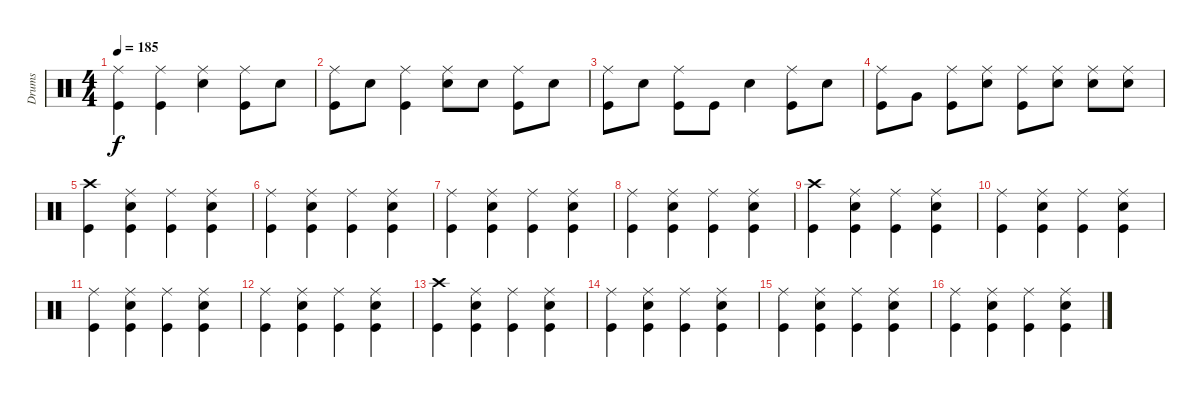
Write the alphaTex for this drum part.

\track ("Drums " "Drums ") {instrument percussion}
\staff {score}
\articulation defaults
\ts (4 4)
\tempo 185
\clef neutral
\ks c
("Ride (middle)" "Kick (hit)").4{dy f} ("Kick (hit)" "Ride (middle)").4 ("Snare (hit) 2" "Ride (middle)").4 ("Kick (hit)" "Ride (middle)").8 "Snare (hit) 2".8 |
("Ride (middle)" "Kick (hit)").8 "Snare (hit) 2".8 ("Ride (middle)" "Kick (hit)").4 ("Ride (middle)" "Snare (hit) 2").8 "Snare (hit) 2".8 ("Ride (middle)" "Kick (hit)").8 "Snare (hit) 2".8 |
("Ride (middle)" "Kick (hit)").8 "Snare (hit) 2".8 ("Kick (hit)" "Ride (middle)").8 "Kick (hit)".8 "Snare (hit) 2".4 ("Ride (middle)" "Kick (hit)").8 "Snare (hit) 2".8 |
("Ride (middle)" "Kick (hit)").8 "Very Low Tom (hit)".8 ("Ride (middle)" "Kick (hit)").8 ("Snare (hit) 2" "Ride (middle)").8 ("Ride (middle)" "Kick (hit)").8 ("Snare (hit) 2" "Ride (middle)").8 ("Snare (hit) 2" "Ride (middle)").8 ("Snare (hit) 2" "Ride (middle)").8 |
("Crash high (hit)" "Kick (hit)").4 ("Ride (middle)" "Snare (hit) 2" "Kick (hit)").4 ("Ride (middle)" "Kick (hit)").4 ("Ride (middle)" "Snare (hit) 2" "Kick (hit)").4 |
("Ride (middle)" "Kick (hit)").4 ("Ride (middle)" "Snare (hit) 2" "Kick (hit)").4 ("Ride (middle)" "Kick (hit)").4 ("Ride (middle)" "Snare (hit) 2" "Kick (hit)").4 |
("Ride (middle)" "Kick (hit)").4 ("Ride (middle)" "Snare (hit) 2" "Kick (hit)").4 ("Ride (middle)" "Kick (hit)").4 ("Ride (middle)" "Snare (hit) 2" "Kick (hit)").4 |
("Ride (middle)" "Kick (hit)").4 ("Ride (middle)" "Snare (hit) 2" "Kick (hit)").4 ("Ride (middle)" "Kick (hit)").4 ("Ride (middle)" "Snare (hit) 2" "Kick (hit)").4 |
("Crash high (hit)" "Kick (hit)").4 ("Ride (middle)" "Snare (hit) 2" "Kick (hit)").4 ("Ride (middle)" "Kick (hit)").4 ("Ride (middle)" "Snare (hit) 2" "Kick (hit)").4 |
("Ride (middle)" "Kick (hit)").4 ("Ride (middle)" "Snare (hit) 2" "Kick (hit)").4 ("Ride (middle)" "Kick (hit)").4 ("Ride (middle)" "Snare (hit) 2" "Kick (hit)").4 |
("Ride (middle)" "Kick (hit)").4 ("Ride (middle)" "Snare (hit) 2" "Kick (hit)").4 ("Ride (middle)" "Kick (hit)").4 ("Ride (middle)" "Snare (hit) 2" "Kick (hit)").4 |
("Ride (middle)" "Kick (hit)").4 ("Ride (middle)" "Snare (hit) 2" "Kick (hit)").4 ("Ride (middle)" "Kick (hit)").4 ("Ride (middle)" "Snare (hit) 2" "Kick (hit)").4 |
("Crash high (hit)" "Kick (hit)").4 ("Ride (middle)" "Snare (hit) 2" "Kick (hit)").4 ("Ride (middle)" "Kick (hit)").4 ("Ride (middle)" "Snare (hit) 2" "Kick (hit)").4 |
("Ride (middle)" "Kick (hit)").4 ("Ride (middle)" "Snare (hit) 2" "Kick (hit)").4 ("Ride (middle)" "Kick (hit)").4 ("Ride (middle)" "Snare (hit) 2" "Kick (hit)").4 |
("Ride (middle)" "Kick (hit)").4 ("Ride (middle)" "Snare (hit) 2" "Kick (hit)").4 ("Ride (middle)" "Kick (hit)").4 ("Ride (middle)" "Snare (hit) 2" "Kick (hit)").4 |
("Ride (middle)" "Kick (hit)").4 ("Ride (middle)" "Snare (hit) 2" "Kick (hit)").4 ("Ride (middle)" "Kick (hit)").4 ("Ride (middle)" "Snare (hit) 2" "Kick (hit)").4
